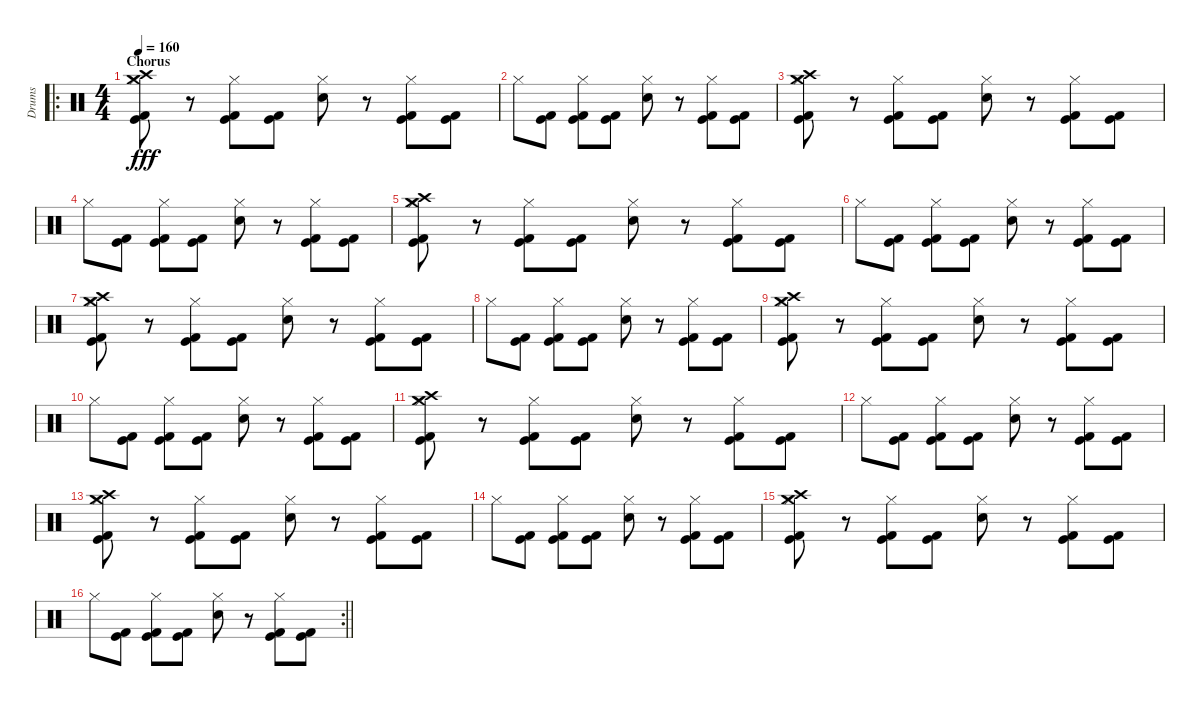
\track ("Drums" "Drums") {instrument percussion}
\staff {score}
\articulation defaults
\ro
\ts (4 4)
\section ("" "Chorus")
\tempo 160
\clef neutral
\ks c
("Kick (hit) 2" "Kick (hit)" "Hi-Hat (closed)" "Crash high (hit)" "Crash medium (hit)").8{dy fff} r.8 ("Kick (hit) 2" "Kick (hit)" "Hi-Hat (closed)").8 ("Kick (hit) 2" "Kick (hit)").8 ("Electric Snare (hit)" "Hi-Hat (closed)").8 r.8 ("Kick (hit) 2" "Kick (hit)" "Hi-Hat (closed)").8 ("Kick (hit) 2" "Kick (hit)").8 |
"Hi-Hat (closed)".8 ("Kick (hit) 2" "Kick (hit)").8 ("Kick (hit) 2" "Kick (hit)" "Hi-Hat (closed)").8 ("Kick (hit) 2" "Kick (hit)").8 ("Electric Snare (hit)" "Hi-Hat (closed)").8 r.8 ("Kick (hit) 2" "Kick (hit)" "Hi-Hat (closed)").8 ("Kick (hit) 2" "Kick (hit)").8 |
("Kick (hit) 2" "Kick (hit)" "Hi-Hat (closed)" "Crash high (hit)" "Crash medium (hit)").8 r.8 ("Kick (hit) 2" "Kick (hit)" "Hi-Hat (closed)").8 ("Kick (hit) 2" "Kick (hit)").8 ("Electric Snare (hit)" "Hi-Hat (closed)").8 r.8 ("Kick (hit) 2" "Kick (hit)" "Hi-Hat (closed)").8 ("Kick (hit) 2" "Kick (hit)").8 |
"Hi-Hat (closed)".8 ("Kick (hit) 2" "Kick (hit)").8 ("Kick (hit) 2" "Kick (hit)" "Hi-Hat (closed)").8 ("Kick (hit) 2" "Kick (hit)").8 ("Electric Snare (hit)" "Hi-Hat (closed)").8 r.8 ("Kick (hit) 2" "Kick (hit)" "Hi-Hat (closed)").8 ("Kick (hit) 2" "Kick (hit)").8 |
("Kick (hit) 2" "Kick (hit)" "Hi-Hat (closed)" "Crash high (hit)" "Crash medium (hit)").8 r.8 ("Kick (hit) 2" "Kick (hit)" "Hi-Hat (closed)").8 ("Kick (hit) 2" "Kick (hit)").8 ("Electric Snare (hit)" "Hi-Hat (closed)").8 r.8 ("Kick (hit) 2" "Kick (hit)" "Hi-Hat (closed)").8 ("Kick (hit) 2" "Kick (hit)").8 |
"Hi-Hat (closed)".8 ("Kick (hit) 2" "Kick (hit)").8 ("Kick (hit) 2" "Kick (hit)" "Hi-Hat (closed)").8 ("Kick (hit) 2" "Kick (hit)").8 ("Electric Snare (hit)" "Hi-Hat (closed)").8 r.8 ("Kick (hit) 2" "Kick (hit)" "Hi-Hat (closed)").8 ("Kick (hit) 2" "Kick (hit)").8 |
("Kick (hit) 2" "Kick (hit)" "Hi-Hat (closed)" "Crash high (hit)" "Crash medium (hit)").8 r.8 ("Kick (hit) 2" "Kick (hit)" "Hi-Hat (closed)").8 ("Kick (hit) 2" "Kick (hit)").8 ("Electric Snare (hit)" "Hi-Hat (closed)").8 r.8 ("Kick (hit) 2" "Kick (hit)" "Hi-Hat (closed)").8 ("Kick (hit) 2" "Kick (hit)").8 |
"Hi-Hat (closed)".8 ("Kick (hit) 2" "Kick (hit)").8 ("Kick (hit) 2" "Kick (hit)" "Hi-Hat (closed)").8 ("Kick (hit) 2" "Kick (hit)").8 ("Electric Snare (hit)" "Hi-Hat (closed)").8 r.8 ("Kick (hit) 2" "Kick (hit)" "Hi-Hat (closed)").8 ("Kick (hit) 2" "Kick (hit)").8 |
("Kick (hit) 2" "Kick (hit)" "Hi-Hat (closed)" "Crash high (hit)" "Crash medium (hit)").8 r.8 ("Kick (hit) 2" "Kick (hit)" "Hi-Hat (closed)").8 ("Kick (hit) 2" "Kick (hit)").8 ("Electric Snare (hit)" "Hi-Hat (closed)").8 r.8 ("Kick (hit) 2" "Kick (hit)" "Hi-Hat (closed)").8 ("Kick (hit) 2" "Kick (hit)").8 |
"Hi-Hat (closed)".8 ("Kick (hit) 2" "Kick (hit)").8 ("Kick (hit) 2" "Kick (hit)" "Hi-Hat (closed)").8 ("Kick (hit) 2" "Kick (hit)").8 ("Electric Snare (hit)" "Hi-Hat (closed)").8 r.8 ("Kick (hit) 2" "Kick (hit)" "Hi-Hat (closed)").8 ("Kick (hit) 2" "Kick (hit)").8 |
("Kick (hit) 2" "Kick (hit)" "Hi-Hat (closed)" "Crash high (hit)" "Crash medium (hit)").8 r.8 ("Kick (hit) 2" "Kick (hit)" "Hi-Hat (closed)").8 ("Kick (hit) 2" "Kick (hit)").8 ("Electric Snare (hit)" "Hi-Hat (closed)").8 r.8 ("Kick (hit) 2" "Kick (hit)" "Hi-Hat (closed)").8 ("Kick (hit) 2" "Kick (hit)").8 |
"Hi-Hat (closed)".8 ("Kick (hit) 2" "Kick (hit)").8 ("Kick (hit) 2" "Kick (hit)" "Hi-Hat (closed)").8 ("Kick (hit) 2" "Kick (hit)").8 ("Electric Snare (hit)" "Hi-Hat (closed)").8 r.8 ("Kick (hit) 2" "Kick (hit)" "Hi-Hat (closed)").8 ("Kick (hit) 2" "Kick (hit)").8 |
("Kick (hit) 2" "Kick (hit)" "Hi-Hat (closed)" "Crash high (hit)" "Crash medium (hit)").8 r.8 ("Kick (hit) 2" "Kick (hit)" "Hi-Hat (closed)").8 ("Kick (hit) 2" "Kick (hit)").8 ("Electric Snare (hit)" "Hi-Hat (closed)").8 r.8 ("Kick (hit) 2" "Kick (hit)" "Hi-Hat (closed)").8 ("Kick (hit) 2" "Kick (hit)").8 |
"Hi-Hat (closed)".8 ("Kick (hit) 2" "Kick (hit)").8 ("Kick (hit) 2" "Kick (hit)" "Hi-Hat (closed)").8 ("Kick (hit) 2" "Kick (hit)").8 ("Electric Snare (hit)" "Hi-Hat (closed)").8 r.8 ("Kick (hit) 2" "Kick (hit)" "Hi-Hat (closed)").8 ("Kick (hit) 2" "Kick (hit)").8 |
("Kick (hit) 2" "Kick (hit)" "Hi-Hat (closed)" "Crash high (hit)" "Crash medium (hit)").8 r.8 ("Kick (hit) 2" "Kick (hit)" "Hi-Hat (closed)").8 ("Kick (hit) 2" "Kick (hit)").8 ("Electric Snare (hit)" "Hi-Hat (closed)").8 r.8 ("Kick (hit) 2" "Kick (hit)" "Hi-Hat (closed)").8 ("Kick (hit) 2" "Kick (hit)").8 |
\rc 2
\barLineRight lightlight "Hi-Hat (closed)".8
("Kick (hit) 2" "Kick (hit)").8 ("Kick (hit) 2" "Kick (hit)" "Hi-Hat (closed)").8 ("Kick (hit) 2" "Kick (hit)").8 ("Electric Snare (hit)" "Hi-Hat (closed)").8 r.8 ("Kick (hit) 2" "Kick (hit)" "Hi-Hat (closed)").8 ("Kick (hit) 2" "Kick (hit)").8
